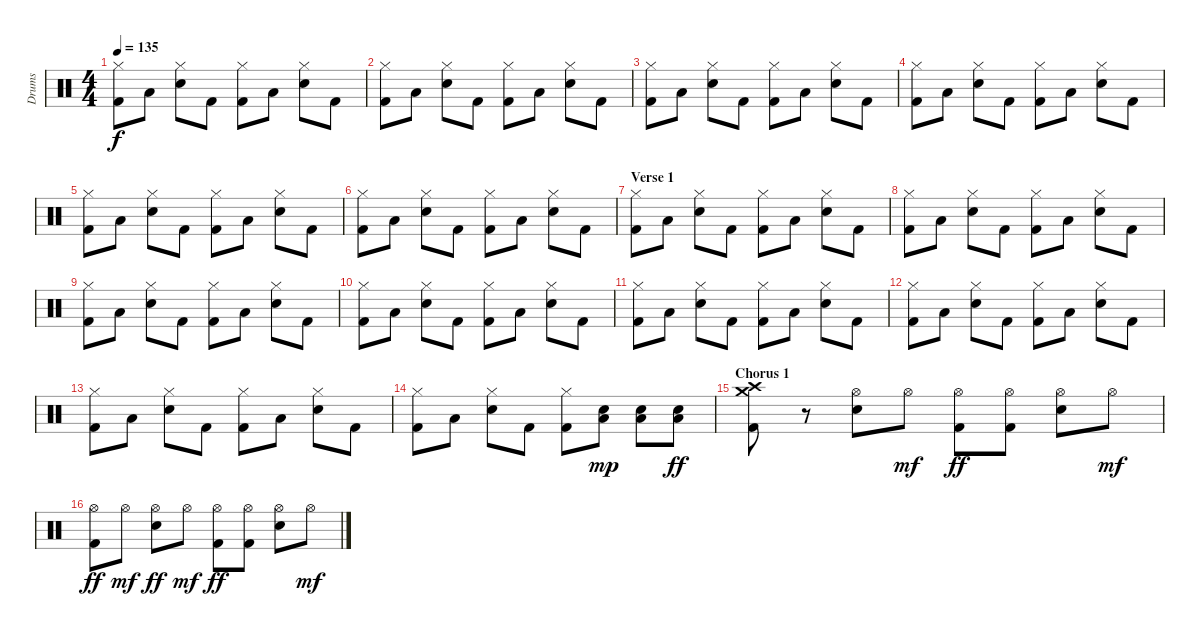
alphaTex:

\track ("Drums" "Drums") {instrument percussion}
\staff {score}
\articulation defaults
\ts (4 4)
\tempo 135
\clef neutral
\ks c
("Hi-Hat (closed)" "Kick (hit) 2").8{dy f} "Low Floor Tom (hit)".8 ("Hi-Hat (closed)" "Snare (hit) 2").8 "Kick (hit) 2".8 ("Hi-Hat (closed)" "Kick (hit) 2").8 "Low Floor Tom (hit)".8 ("Hi-Hat (closed)" "Snare (hit) 2").8 "Kick (hit) 2".8 |
("Hi-Hat (closed)" "Kick (hit) 2").8 "Low Floor Tom (hit)".8 ("Hi-Hat (closed)" "Snare (hit) 2").8 "Kick (hit) 2".8 ("Hi-Hat (closed)" "Kick (hit) 2").8 "Low Floor Tom (hit)".8 ("Hi-Hat (closed)" "Snare (hit) 2").8 "Kick (hit) 2".8 |
("Hi-Hat (closed)" "Kick (hit) 2").8 "Low Floor Tom (hit)".8 ("Hi-Hat (closed)" "Snare (hit) 2").8 "Kick (hit) 2".8 ("Hi-Hat (closed)" "Kick (hit) 2").8 "Low Floor Tom (hit)".8 ("Hi-Hat (closed)" "Snare (hit) 2").8 "Kick (hit) 2".8 |
("Hi-Hat (closed)" "Kick (hit) 2").8 "Low Floor Tom (hit)".8 ("Hi-Hat (closed)" "Snare (hit) 2").8 "Kick (hit) 2".8 ("Hi-Hat (closed)" "Kick (hit) 2").8 "Low Floor Tom (hit)".8 ("Hi-Hat (closed)" "Snare (hit) 2").8 "Kick (hit) 2".8 |
("Hi-Hat (closed)" "Kick (hit) 2").8 "Low Floor Tom (hit)".8 ("Hi-Hat (closed)" "Snare (hit) 2").8 "Kick (hit) 2".8 ("Hi-Hat (closed)" "Kick (hit) 2").8 "Low Floor Tom (hit)".8 ("Hi-Hat (closed)" "Snare (hit) 2").8 "Kick (hit) 2".8 |
("Hi-Hat (closed)" "Kick (hit) 2").8 "Low Floor Tom (hit)".8 ("Hi-Hat (closed)" "Snare (hit) 2").8 "Kick (hit) 2".8 ("Hi-Hat (closed)" "Kick (hit) 2").8 "Low Floor Tom (hit)".8 ("Hi-Hat (closed)" "Snare (hit) 2").8 "Kick (hit) 2".8 |
\section ("" "Verse 1")
("Hi-Hat (closed)" "Kick (hit) 2").8 "Low Floor Tom (hit)".8 ("Hi-Hat (closed)" "Snare (hit) 2").8 "Kick (hit) 2".8 ("Hi-Hat (closed)" "Kick (hit) 2").8 "Low Floor Tom (hit)".8 ("Hi-Hat (closed)" "Snare (hit) 2").8 "Kick (hit) 2".8 |
("Hi-Hat (closed)" "Kick (hit) 2").8 "Low Floor Tom (hit)".8 ("Hi-Hat (closed)" "Snare (hit) 2").8 "Kick (hit) 2".8 ("Hi-Hat (closed)" "Kick (hit) 2").8 "Low Floor Tom (hit)".8 ("Hi-Hat (closed)" "Snare (hit) 2").8 "Kick (hit) 2".8 |
("Hi-Hat (closed)" "Kick (hit) 2").8 "Low Floor Tom (hit)".8 ("Hi-Hat (closed)" "Snare (hit) 2").8 "Kick (hit) 2".8 ("Hi-Hat (closed)" "Kick (hit) 2").8 "Low Floor Tom (hit)".8 ("Hi-Hat (closed)" "Snare (hit) 2").8 "Kick (hit) 2".8 |
("Hi-Hat (closed)" "Kick (hit) 2").8 "Low Floor Tom (hit)".8 ("Hi-Hat (closed)" "Snare (hit) 2").8 "Kick (hit) 2".8 ("Hi-Hat (closed)" "Kick (hit) 2").8 "Low Floor Tom (hit)".8 ("Hi-Hat (closed)" "Snare (hit) 2").8 "Kick (hit) 2".8 |
("Hi-Hat (closed)" "Kick (hit) 2").8 "Low Floor Tom (hit)".8 ("Hi-Hat (closed)" "Snare (hit) 2").8 "Kick (hit) 2".8 ("Hi-Hat (closed)" "Kick (hit) 2").8 "Low Floor Tom (hit)".8 ("Hi-Hat (closed)" "Snare (hit) 2").8 "Kick (hit) 2".8 |
("Hi-Hat (closed)" "Kick (hit) 2").8 "Low Floor Tom (hit)".8 ("Hi-Hat (closed)" "Snare (hit) 2").8 "Kick (hit) 2".8 ("Hi-Hat (closed)" "Kick (hit) 2").8 "Low Floor Tom (hit)".8 ("Hi-Hat (closed)" "Snare (hit) 2").8 "Kick (hit) 2".8 |
("Hi-Hat (closed)" "Kick (hit) 2").8 "Low Floor Tom (hit)".8 ("Hi-Hat (closed)" "Snare (hit) 2").8 "Kick (hit) 2".8 ("Hi-Hat (closed)" "Kick (hit) 2").8 "Low Floor Tom (hit)".8 ("Hi-Hat (closed)" "Snare (hit) 2").8 "Kick (hit) 2".8 |
("Hi-Hat (closed)" "Kick (hit) 2").8 "Low Floor Tom (hit)".8 ("Hi-Hat (closed)" "Snare (hit) 2").8 "Kick (hit) 2".8 ("Hi-Hat (closed)" "Kick (hit) 2").8 ("Low Floor Tom (hit)" "Snare (hit) 2").8{dy mp} ("Low Floor Tom (hit)" "Snare (hit) 2").8 ("Low Floor Tom (hit)" "Snare (hit) 2").8{dy ff} |
\section ("" "Chorus 1")
("Crash high (hit)" "Crash medium (hit)" "Kick (hit) 2").8 r.8 ("Hi-Hat (open)" "Snare (hit) 2").8 "Hi-Hat (open)".8{dy mf} ("Hi-Hat (open)" "Kick (hit) 2").8{dy ff} ("Hi-Hat (open)" "Kick (hit) 2").8 ("Hi-Hat (open)" "Snare (hit) 2").8 "Hi-Hat (open)".8{dy mf} |
("Hi-Hat (open)" "Kick (hit) 2").8{dy ff} "Hi-Hat (open)".8{dy mf} ("Hi-Hat (open)" "Snare (hit) 2").8{dy ff} "Hi-Hat (open)".8{dy mf} ("Hi-Hat (open)" "Kick (hit) 2").8{dy ff} ("Hi-Hat (open)" "Kick (hit) 2").8 ("Hi-Hat (open)" "Snare (hit) 2").8 "Hi-Hat (open)".8{dy mf}
